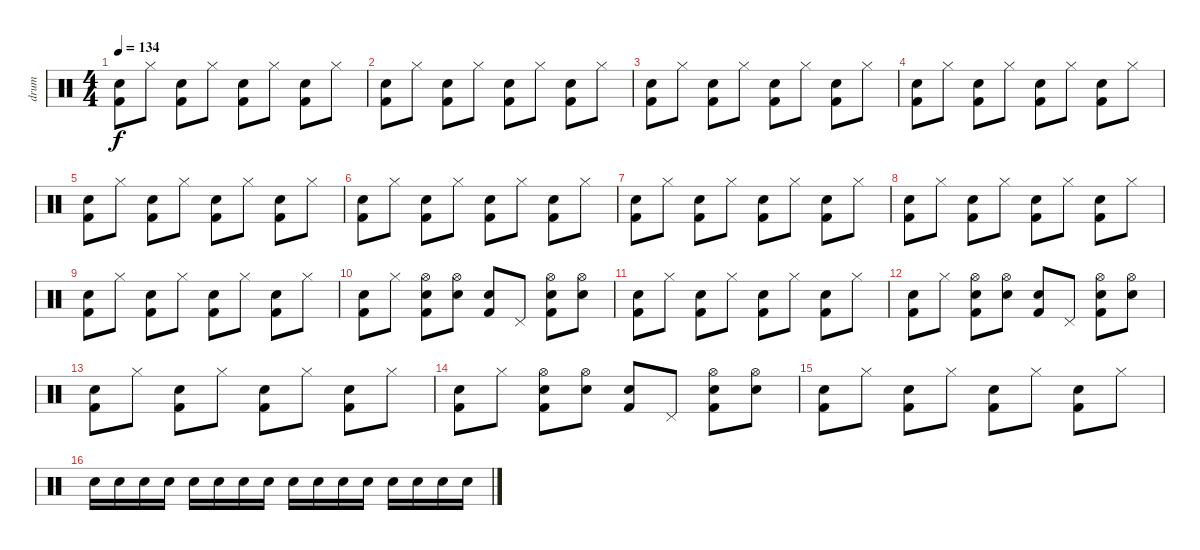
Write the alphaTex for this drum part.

\track ("drum" "drum") {instrument percussion}
\staff {score}
\articulation defaults
\ts (4 4)
\tempo 134
\clef neutral
\ks c
("Electric Snare (hit)" "Kick (hit) 2").8{dy f} "Hi-Hat (closed)".8 ("Electric Snare (hit)" "Kick (hit) 2").8 "Hi-Hat (closed)".8 ("Electric Snare (hit)" "Kick (hit) 2").8 "Hi-Hat (closed)".8 ("Electric Snare (hit)" "Kick (hit) 2").8 "Hi-Hat (closed)".8 |
("Electric Snare (hit)" "Kick (hit) 2").8 "Hi-Hat (closed)".8 ("Electric Snare (hit)" "Kick (hit) 2").8 "Hi-Hat (closed)".8 ("Electric Snare (hit)" "Kick (hit) 2").8 "Hi-Hat (closed)".8 ("Electric Snare (hit)" "Kick (hit) 2").8 "Hi-Hat (closed)".8 |
("Electric Snare (hit)" "Kick (hit) 2").8 "Hi-Hat (closed)".8 ("Electric Snare (hit)" "Kick (hit) 2").8 "Hi-Hat (closed)".8 ("Electric Snare (hit)" "Kick (hit) 2").8 "Hi-Hat (closed)".8 ("Electric Snare (hit)" "Kick (hit) 2").8 "Hi-Hat (closed)".8 |
("Electric Snare (hit)" "Kick (hit) 2").8 "Hi-Hat (closed)".8 ("Electric Snare (hit)" "Kick (hit) 2").8 "Hi-Hat (closed)".8 ("Electric Snare (hit)" "Kick (hit) 2").8 "Hi-Hat (closed)".8 ("Electric Snare (hit)" "Kick (hit) 2").8 "Hi-Hat (closed)".8 |
("Electric Snare (hit)" "Kick (hit) 2").8 "Hi-Hat (closed)".8 ("Electric Snare (hit)" "Kick (hit) 2").8 "Hi-Hat (closed)".8 ("Electric Snare (hit)" "Kick (hit) 2").8 "Hi-Hat (closed)".8 ("Electric Snare (hit)" "Kick (hit) 2").8 "Hi-Hat (closed)".8 |
("Electric Snare (hit)" "Kick (hit) 2").8 "Hi-Hat (closed)".8 ("Electric Snare (hit)" "Kick (hit) 2").8 "Hi-Hat (closed)".8 ("Electric Snare (hit)" "Kick (hit) 2").8 "Hi-Hat (closed)".8 ("Electric Snare (hit)" "Kick (hit) 2").8 "Hi-Hat (closed)".8 |
("Electric Snare (hit)" "Kick (hit) 2").8 "Hi-Hat (closed)".8 ("Electric Snare (hit)" "Kick (hit) 2").8 "Hi-Hat (closed)".8 ("Electric Snare (hit)" "Kick (hit) 2").8 "Hi-Hat (closed)".8 ("Electric Snare (hit)" "Kick (hit) 2").8 "Hi-Hat (closed)".8 |
("Electric Snare (hit)" "Kick (hit) 2").8 "Hi-Hat (closed)".8 ("Electric Snare (hit)" "Kick (hit) 2").8 "Hi-Hat (closed)".8 ("Electric Snare (hit)" "Kick (hit) 2").8 "Hi-Hat (closed)".8 ("Electric Snare (hit)" "Kick (hit) 2").8 "Hi-Hat (closed)".8 |
("Electric Snare (hit)" "Kick (hit) 2").8 "Hi-Hat (closed)".8 ("Electric Snare (hit)" "Kick (hit) 2").8 "Hi-Hat (closed)".8 ("Electric Snare (hit)" "Kick (hit) 2").8 "Hi-Hat (closed)".8 ("Electric Snare (hit)" "Kick (hit) 2").8 "Hi-Hat (closed)".8 |
("Electric Snare (hit)" "Kick (hit) 2").8 "Hi-Hat (closed)".8 ("Hi-Hat (open)" "Electric Snare (hit)" "Kick (hit) 2").8 ("Hi-Hat (open)" "Electric Snare (hit)").8 ("Electric Snare (hit)" "Kick (hit) 2").8 "Pedal Hi-Hat (hit)".8 ("Hi-Hat (open)" "Electric Snare (hit)" "Kick (hit) 2").8 ("Hi-Hat (open)" "Electric Snare (hit)").8 |
("Electric Snare (hit)" "Kick (hit) 2").8 "Hi-Hat (closed)".8 ("Electric Snare (hit)" "Kick (hit) 2").8 "Hi-Hat (closed)".8 ("Electric Snare (hit)" "Kick (hit) 2").8 "Hi-Hat (closed)".8 ("Electric Snare (hit)" "Kick (hit) 2").8 "Hi-Hat (closed)".8 |
("Electric Snare (hit)" "Kick (hit) 2").8 "Hi-Hat (closed)".8 ("Hi-Hat (open)" "Electric Snare (hit)" "Kick (hit) 2").8 ("Hi-Hat (open)" "Electric Snare (hit)").8 ("Electric Snare (hit)" "Kick (hit) 2").8 "Pedal Hi-Hat (hit)".8 ("Hi-Hat (open)" "Electric Snare (hit)" "Kick (hit) 2").8 ("Hi-Hat (open)" "Electric Snare (hit)").8 |
("Electric Snare (hit)" "Kick (hit) 2").8 "Hi-Hat (closed)".8 ("Electric Snare (hit)" "Kick (hit) 2").8 "Hi-Hat (closed)".8 ("Electric Snare (hit)" "Kick (hit) 2").8 "Hi-Hat (closed)".8 ("Electric Snare (hit)" "Kick (hit) 2").8 "Hi-Hat (closed)".8 |
("Electric Snare (hit)" "Kick (hit) 2").8 "Hi-Hat (closed)".8 ("Hi-Hat (open)" "Electric Snare (hit)" "Kick (hit) 2").8 ("Hi-Hat (open)" "Electric Snare (hit)").8 ("Electric Snare (hit)" "Kick (hit) 2").8 "Pedal Hi-Hat (hit)".8 ("Hi-Hat (open)" "Electric Snare (hit)" "Kick (hit) 2").8 ("Hi-Hat (open)" "Electric Snare (hit)").8 |
("Electric Snare (hit)" "Kick (hit) 2").8 "Hi-Hat (closed)".8 ("Electric Snare (hit)" "Kick (hit) 2").8 "Hi-Hat (closed)".8 ("Electric Snare (hit)" "Kick (hit) 2").8 "Hi-Hat (closed)".8 ("Electric Snare (hit)" "Kick (hit) 2").8 "Hi-Hat (closed)".8 |
"Electric Snare (hit)".16 "Electric Snare (hit)".16 "Electric Snare (hit)".16 "Electric Snare (hit)".16 "Electric Snare (hit)".16 "Electric Snare (hit)".16 "Electric Snare (hit)".16 "Electric Snare (hit)".16 "Electric Snare (hit)".16 "Electric Snare (hit)".16 "Electric Snare (hit)".16 "Electric Snare (hit)".16 "Electric Snare (hit)".16 "Electric Snare (hit)".16 "Electric Snare (hit)".16 "Electric Snare (hit)".16
